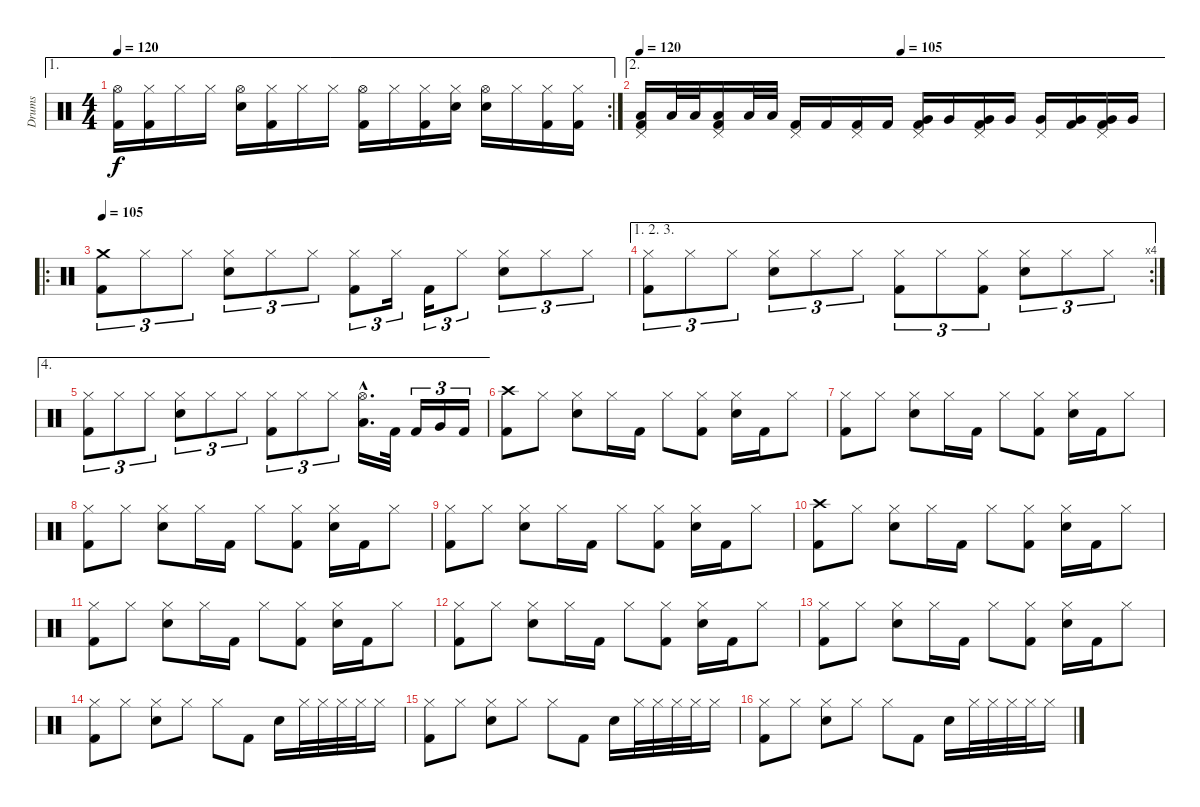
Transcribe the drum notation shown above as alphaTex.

\track ("Drums" "Drums") {instrument percussion}
\staff {score}
\articulation defaults
\ae 1
\rc 2
\ts (4 4)
\tempo 120
\clef neutral
\ks c
("Hi-Hat (open)" "Kick (hit) 2").16{dy f} ("Hi-Hat (closed)" "Kick (hit) 2").16 "Hi-Hat (closed)".16 "Hi-Hat (closed)".16 ("Hi-Hat (open)" "Electric Snare (hit)").16 ("Hi-Hat (closed)" "Kick (hit) 2").16 "Hi-Hat (closed)".16 "Hi-Hat (closed)".16 ("Hi-Hat (open)" "Kick (hit) 2").16 "Hi-Hat (closed)".16 ("Hi-Hat (closed)" "Kick (hit) 2").16 ("Hi-Hat (closed)" "Electric Snare (hit)").16 ("Hi-Hat (open)" "Electric Snare (hit)").16 "Hi-Hat (closed)".16 ("Hi-Hat (closed)" "Kick (hit) 2").16 ("Hi-Hat (closed)" "Kick (hit) 2").16 |
\ae 2
\tempo 120
\tempo (105 0.5)
("Pedal Hi-Hat (hit)" "Low Tom (hit)" "Kick (hit) 2").16 "Low Tom (hit)".32 "Low Tom (hit)".32 ("Pedal Hi-Hat (hit)" "Low Tom (hit)" "Kick (hit) 2").16 "Low Tom (hit)".32 "Low Tom (hit)".32 ("Pedal Hi-Hat (hit)" "Kick (hit) 2").16 "Kick (hit) 2".16 ("Pedal Hi-Hat (hit)" "Kick (hit) 2").16 "Kick (hit) 2".16 ("Pedal Hi-Hat (hit)" "Very Low Tom (hit)" "Kick (hit) 2").16 "Very Low Tom (hit)".16 ("Pedal Hi-Hat (hit)" "Very Low Tom (hit)" "Kick (hit) 2").16 "Very Low Tom (hit)".16 ("Pedal Hi-Hat (hit)" "Very Low Tom (hit)").16 ("Very Low Tom (hit)" "Kick (hit) 2").16 ("Pedal Hi-Hat (hit)" "Very Low Tom (hit)" "Kick (hit) 2").16 "Very Low Tom (hit)".16 |
\ro
\tempo 105
("Crash medium (hit)" "Kick (hit) 2").8{tu (3 2)} "Hi-Hat (closed)".8{tu (3 2)} "Hi-Hat (closed)".8{tu (3 2)} ("Hi-Hat (closed)" "Electric Snare (hit)").8{tu (3 2)} "Hi-Hat (closed)".8{tu (3 2)} "Hi-Hat (closed)".8{tu (3 2)} ("Hi-Hat (closed)" "Kick (hit) 2").8{tu (3 2)} "Hi-Hat (closed)".16{tu (3 2)} "Kick (hit) 2".16{tu (3 2)} "Hi-Hat (closed)".8{tu (3 2)} ("Hi-Hat (closed)" "Electric Snare (hit)").8{tu (3 2)} "Hi-Hat (closed)".8{tu (3 2)} "Hi-Hat (closed)".8{tu (3 2)} |
\ae (1 2 3)
\rc 4
("Hi-Hat (closed)" "Kick (hit) 2").8{tu (3 2)} "Hi-Hat (closed)".8{tu (3 2)} "Hi-Hat (closed)".8{tu (3 2)} ("Hi-Hat (closed)" "Electric Snare (hit)").8{tu (3 2)} "Hi-Hat (closed)".8{tu (3 2)} "Hi-Hat (closed)".8{tu (3 2)} ("Hi-Hat (closed)" "Kick (hit) 2").8{tu (3 2)} "Hi-Hat (closed)".8{tu (3 2)} ("Hi-Hat (closed)" "Kick (hit) 2").8{tu (3 2)} ("Hi-Hat (closed)" "Electric Snare (hit)").8{tu (3 2)} "Hi-Hat (closed)".8{tu (3 2)} "Hi-Hat (closed)".8{tu (3 2)} |
\ae 4
("Hi-Hat (closed)" "Kick (hit) 2").8{tu (3 2)} "Hi-Hat (closed)".8{tu (3 2)} "Hi-Hat (closed)".8{tu (3 2)} ("Hi-Hat (closed)" "Electric Snare (hit)").8{tu (3 2)} "Hi-Hat (closed)".8{tu (3 2)} "Hi-Hat (closed)".8{tu (3 2)} ("Hi-Hat (closed)" "Kick (hit) 2").8{tu (3 2)} "Hi-Hat (closed)".8{tu (3 2)} "Hi-Hat (closed)".8{tu (3 2)} ("Hi-Hat (open)"{hac} "Low Tom (hit)"{hac}).16{d} "Kick (hit) 2".32 "Kick (hit) 2".16{tu (3 2)} "Very Low Tom (hit)".16{tu (3 2)} "Kick (hit) 2".16{tu (3 2)} |
("Crash high (hit)" "Kick (hit) 2").8 "Hi-Hat (closed)".8 ("Hi-Hat (closed)" "Electric Snare (hit)").8 "Hi-Hat (closed)".16 "Kick (hit) 2".16 "Hi-Hat (closed)".8 ("Hi-Hat (closed)" "Kick (hit) 2").8 ("Hi-Hat (closed)" "Electric Snare (hit)").16 "Kick (hit) 2".16 "Hi-Hat (closed)".8 |
("Hi-Hat (closed)" "Kick (hit) 2").8 "Hi-Hat (closed)".8 ("Hi-Hat (closed)" "Electric Snare (hit)").8 "Hi-Hat (closed)".16 "Kick (hit) 2".16 "Hi-Hat (closed)".8 ("Hi-Hat (closed)" "Kick (hit) 2").8 ("Hi-Hat (closed)" "Electric Snare (hit)").16 "Kick (hit) 2".16 "Hi-Hat (closed)".8 |
("Hi-Hat (closed)" "Kick (hit) 2").8 "Hi-Hat (closed)".8 ("Hi-Hat (closed)" "Electric Snare (hit)").8 "Hi-Hat (closed)".16 "Kick (hit) 2".16 "Hi-Hat (closed)".8 ("Hi-Hat (closed)" "Kick (hit) 2").8 ("Hi-Hat (closed)" "Electric Snare (hit)").16 "Kick (hit) 2".16 "Hi-Hat (closed)".8 |
("Hi-Hat (closed)" "Kick (hit) 2").8 "Hi-Hat (closed)".8 ("Hi-Hat (closed)" "Electric Snare (hit)").8 "Hi-Hat (closed)".16 "Kick (hit) 2".16 "Hi-Hat (closed)".8 ("Hi-Hat (closed)" "Kick (hit) 2").8 ("Hi-Hat (closed)" "Electric Snare (hit)").16 "Kick (hit) 2".16 "Hi-Hat (closed)".8 |
("Crash high (hit)" "Kick (hit) 2").8 "Hi-Hat (closed)".8 ("Hi-Hat (closed)" "Electric Snare (hit)").8 "Hi-Hat (closed)".16 "Kick (hit) 2".16 "Hi-Hat (closed)".8 ("Hi-Hat (closed)" "Kick (hit) 2").8 ("Hi-Hat (closed)" "Electric Snare (hit)").16 "Kick (hit) 2".16 "Hi-Hat (closed)".8 |
("Hi-Hat (closed)" "Kick (hit) 2").8 "Hi-Hat (closed)".8 ("Hi-Hat (closed)" "Electric Snare (hit)").8 "Hi-Hat (closed)".16 "Kick (hit) 2".16 "Hi-Hat (closed)".8 ("Hi-Hat (closed)" "Kick (hit) 2").8 ("Hi-Hat (closed)" "Electric Snare (hit)").16 "Kick (hit) 2".16 "Hi-Hat (closed)".8 |
("Hi-Hat (closed)" "Kick (hit) 2").8 "Hi-Hat (closed)".8 ("Hi-Hat (closed)" "Electric Snare (hit)").8 "Hi-Hat (closed)".16 "Kick (hit) 2".16 "Hi-Hat (closed)".8 ("Hi-Hat (closed)" "Kick (hit) 2").8 ("Hi-Hat (closed)" "Electric Snare (hit)").16 "Kick (hit) 2".16 "Hi-Hat (closed)".8 |
("Hi-Hat (closed)" "Kick (hit) 2").8 "Hi-Hat (closed)".8 ("Hi-Hat (closed)" "Electric Snare (hit)").8 "Hi-Hat (closed)".16 "Kick (hit) 2".16 "Hi-Hat (closed)".8 ("Hi-Hat (closed)" "Kick (hit) 2").8 ("Hi-Hat (closed)" "Electric Snare (hit)").16 "Kick (hit) 2".16 "Hi-Hat (closed)".8 |
("Hi-Hat (closed)" "Kick (hit) 2").8 "Hi-Hat (closed)".8 ("Hi-Hat (closed)" "Electric Snare (hit)").8 "Hi-Hat (closed)".8 "Hi-Hat (closed)".8 "Kick (hit) 2".8 "Electric Snare (hit)".16 "Hi-Hat (closed)".32 "Hi-Hat (closed)".32 "Hi-Hat (closed)".32 "Hi-Hat (closed)".32 "Hi-Hat (closed)".16 |
("Hi-Hat (closed)" "Kick (hit) 2").8 "Hi-Hat (closed)".8 ("Hi-Hat (closed)" "Electric Snare (hit)").8 "Hi-Hat (closed)".8 "Hi-Hat (closed)".8 "Kick (hit) 2".8 "Electric Snare (hit)".16 "Hi-Hat (closed)".32 "Hi-Hat (closed)".32 "Hi-Hat (closed)".32 "Hi-Hat (closed)".32 "Hi-Hat (closed)".16 |
("Hi-Hat (closed)" "Kick (hit) 2").8 "Hi-Hat (closed)".8 ("Hi-Hat (closed)" "Electric Snare (hit)").8 "Hi-Hat (closed)".8 "Hi-Hat (closed)".8 "Kick (hit) 2".8 "Electric Snare (hit)".16 "Hi-Hat (closed)".32 "Hi-Hat (closed)".32 "Hi-Hat (closed)".32 "Hi-Hat (closed)".32 "Hi-Hat (closed)".16
